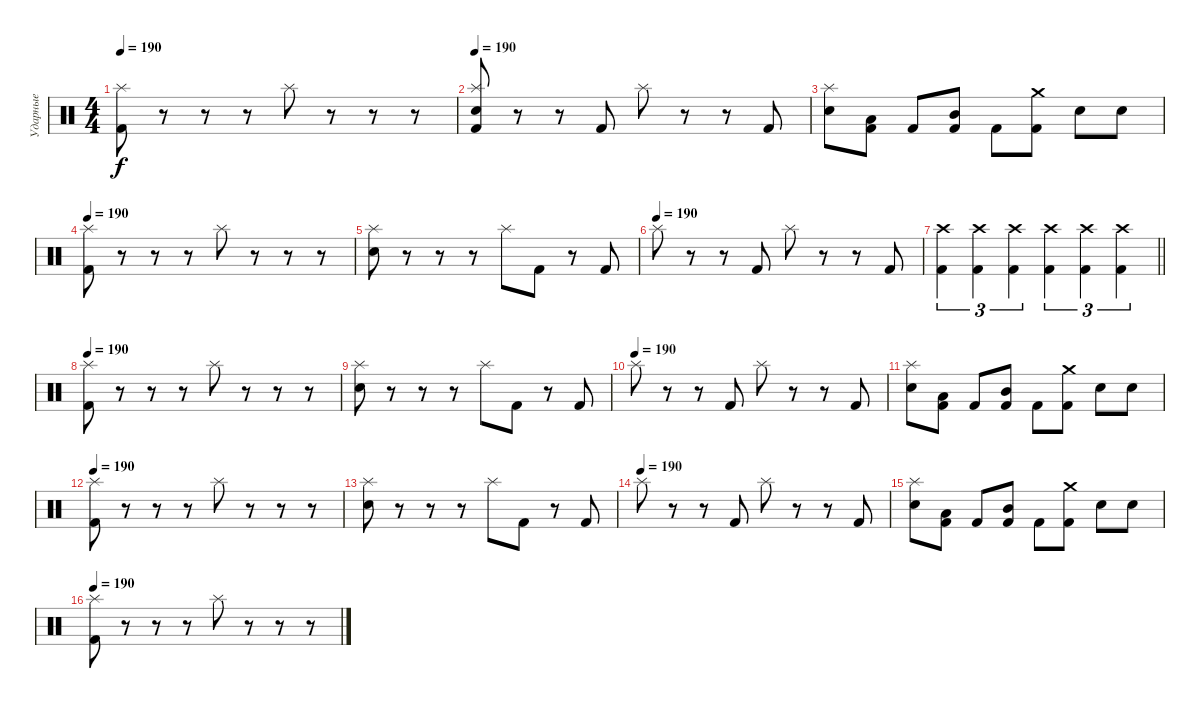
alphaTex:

\track ("Ударные" "Ударные") {instrument percussion}
\staff {score}
\articulation defaults
\ts (4 4)
\tempo 190
\clef neutral
\ks c
("Kick (hit) 2" "Splash (hit)").8{dy f} r.8 r.8 r.8 "Splash (hit)".8 r.8 r.8 r.8 |
\tempo 190
("Kick (hit) 2" "Electric Snare (hit)" "Splash (hit)").8 r.8 r.8 "Kick (hit) 2".8 "Splash (hit)".8 r.8 r.8 "Kick (hit) 2".8 |
("Electric Snare (hit)" "Splash (hit)").8 ("Kick (hit) 2" "Low Tom (hit)").8 "Kick (hit) 2".8 ("Kick (hit) 2" "Mid Tom (hit)").8 "Kick (hit) 2".8 ("Kick (hit) 2" "Crash medium (hit)").8 "Electric Snare (hit)".8 "Electric Snare (hit)".8 |
\tempo 190
("Kick (hit) 2" "Splash (hit)").8 r.8 r.8 r.8 "Splash (hit)".8 r.8 r.8 r.8 |
("Electric Snare (hit)" "Splash (hit)").8 r.8 r.8 r.8 "Splash (hit)".8 "Kick (hit) 2".8 r.8 "Kick (hit) 2".8 |
\tempo (190)
"Splash (hit)".8 r.8 r.8 "Kick (hit) 2".8 "Splash (hit)".8 r.8 r.8 "Kick (hit) 2".8 |
\barLineRight lightlight
("Kick (hit) 2" "Crash high (hit)").4{tu (3 2)} ("Kick (hit) 2" "Crash high (hit)").4{tu (3 2)} ("Kick (hit) 2" "Crash high (hit)").4{tu (3 2)} ("Kick (hit) 2" "Crash high (hit)").4{tu (3 2)} ("Kick (hit) 2" "Crash high (hit)").4{tu (3 2)} ("Kick (hit) 2" "Crash high (hit)").4{tu (3 2)} |
\tempo 190
("Kick (hit) 2" "Splash (hit)").8 r.8 r.8 r.8 "Splash (hit)".8 r.8 r.8 r.8 |
("Electric Snare (hit)" "Splash (hit)").8 r.8 r.8 r.8 "Splash (hit)".8 "Kick (hit) 2".8 r.8 "Kick (hit) 2".8 |
\tempo (190)
"Splash (hit)".8 r.8 r.8 "Kick (hit) 2".8 "Splash (hit)".8 r.8 r.8 "Kick (hit) 2".8 |
("Electric Snare (hit)" "Splash (hit)").8 ("Kick (hit) 2" "Low Tom (hit)").8 "Kick (hit) 2".8 ("Kick (hit) 2" "Mid Tom (hit)").8 "Kick (hit) 2".8 ("Kick (hit) 2" "Crash medium (hit)").8 "Electric Snare (hit)".8 "Electric Snare (hit)".8 |
\tempo 190
("Kick (hit) 2" "Splash (hit)").8 r.8 r.8 r.8 "Splash (hit)".8 r.8 r.8 r.8 |
("Electric Snare (hit)" "Splash (hit)").8 r.8 r.8 r.8 "Splash (hit)".8 "Kick (hit) 2".8 r.8 "Kick (hit) 2".8 |
\tempo (190)
"Splash (hit)".8 r.8 r.8 "Kick (hit) 2".8 "Splash (hit)".8 r.8 r.8 "Kick (hit) 2".8 |
("Electric Snare (hit)" "Splash (hit)").8 ("Kick (hit) 2" "Low Tom (hit)").8 "Kick (hit) 2".8 ("Kick (hit) 2" "Mid Tom (hit)").8 "Kick (hit) 2".8 ("Kick (hit) 2" "Crash medium (hit)").8 "Electric Snare (hit)".8 "Electric Snare (hit)".8 |
\tempo 190
("Kick (hit) 2" "Splash (hit)").8 r.8 r.8 r.8 "Splash (hit)".8 r.8 r.8 r.8
